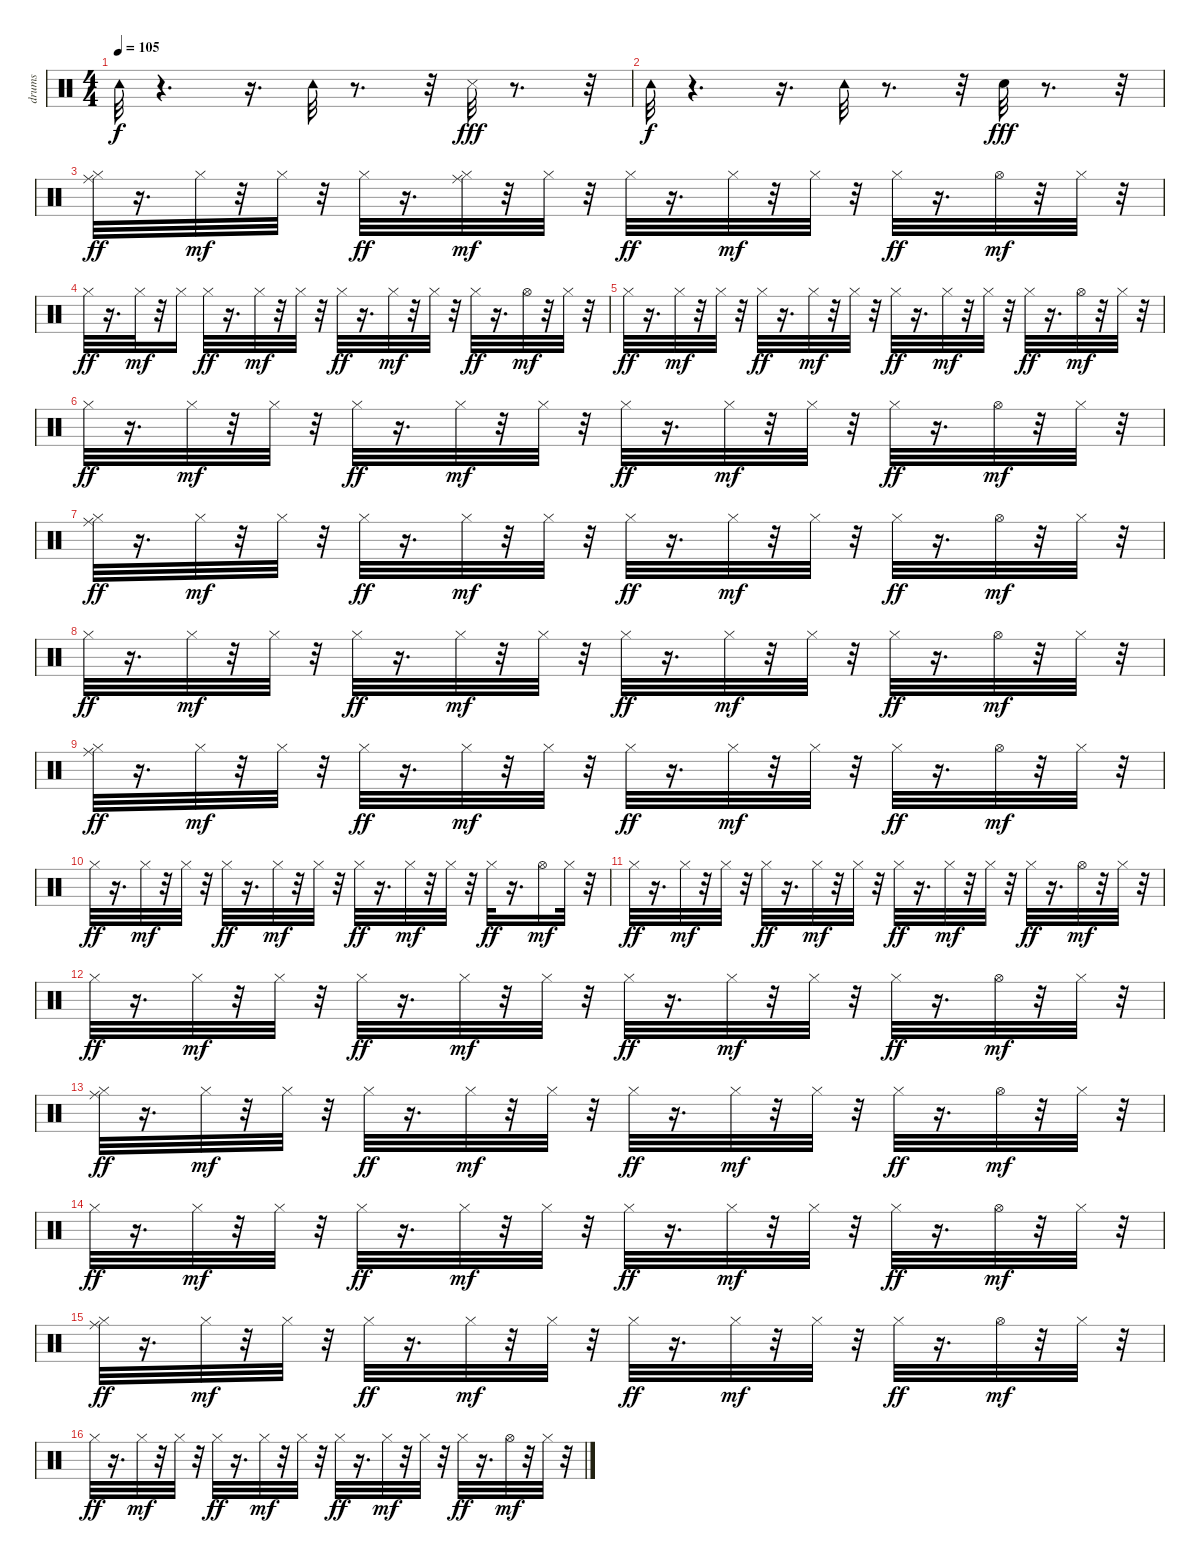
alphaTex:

\track ("drums" "drums") {instrument percussion}
\staff {score}
\articulation defaults
\ts (4 4)
\tempo 105
\clef neutral
\ks c "Tambourine (hit)".32{dy f}
r.4{d} r.16{d} "Tambourine (hit)".32 r.8{d} r.32 "Snare (side stick) 3".32{dy fff} r.8{d} r.32 |
"Tambourine (hit)".32{dy f} r.4{d} r.16{d} "Tambourine (hit)".32 r.8{d} r.32 "Electric Snare (hit)".32{dy fff} r.8{d} r.32 |
("Ride (middle)" "Hi-Hat (closed)").32{dy ff} r.16{d} "Hi-Hat (closed)".32{dy mf} r.32 "Hi-Hat (closed)".32 r.32 "Hi-Hat (closed)".32{dy ff} r.16{d} ("Ride (middle)" "Hi-Hat (closed)").32{dy mf} r.32 "Hi-Hat (closed)".32 r.32 "Hi-Hat (closed)".32{dy ff} r.16{d} "Hi-Hat (closed)".32{dy mf} r.32 "Hi-Hat (closed)".32 r.32 "Hi-Hat (closed)".32{dy ff} r.16{d} "Hi-Hat (open)".32{dy mf} r.32 "Hi-Hat (closed)".32 r.32 |
"Hi-Hat (closed)".32{dy ff} r.16{d} "Hi-Hat (closed)".32{dy mf} r.32 "Hi-Hat (closed)".16 "Hi-Hat (closed)".32{dy ff} r.16{d} "Hi-Hat (closed)".32{dy mf} r.32 "Hi-Hat (closed)".32 r.32 "Hi-Hat (closed)".32{dy ff} r.16{d} "Hi-Hat (closed)".32{dy mf} r.32 "Hi-Hat (closed)".32 r.32 "Hi-Hat (closed)".32{dy ff} r.16{d} "Hi-Hat (open)".32{dy mf} r.32 "Hi-Hat (closed)".32 r.32 |
"Hi-Hat (closed)".32{dy ff} r.16{d} "Hi-Hat (closed)".32{dy mf} r.32 "Hi-Hat (closed)".32 r.32 "Hi-Hat (closed)".32{dy ff} r.16{d} "Hi-Hat (closed)".32{dy mf} r.32 "Hi-Hat (closed)".32 r.32 "Hi-Hat (closed)".32{dy ff} r.16{d} "Hi-Hat (closed)".32{dy mf} r.32 "Hi-Hat (closed)".32 r.32 "Hi-Hat (closed)".32{dy ff} r.16{d} "Hi-Hat (open)".32{dy mf} r.32 "Hi-Hat (closed)".32 r.32 |
"Hi-Hat (closed)".32{dy ff} r.16{d} "Hi-Hat (closed)".32{dy mf} r.32 "Hi-Hat (closed)".32 r.32 "Hi-Hat (closed)".32{dy ff} r.16{d} "Hi-Hat (closed)".32{dy mf} r.32 "Hi-Hat (closed)".32 r.32 "Hi-Hat (closed)".32{dy ff} r.16{d} "Hi-Hat (closed)".32{dy mf} r.32 "Hi-Hat (closed)".32 r.32 "Hi-Hat (closed)".32{dy ff} r.16{d} "Hi-Hat (open)".32{dy mf} r.32 "Hi-Hat (closed)".32 r.32 |
("Ride (middle)" "Hi-Hat (closed)").32{dy ff} r.16{d} "Hi-Hat (closed)".32{dy mf} r.32 "Hi-Hat (closed)".32 r.32 "Hi-Hat (closed)".32{dy ff} r.16{d} "Hi-Hat (closed)".32{dy mf} r.32 "Hi-Hat (closed)".32 r.32 "Hi-Hat (closed)".32{dy ff} r.16{d} "Hi-Hat (closed)".32{dy mf} r.32 "Hi-Hat (closed)".32 r.32 "Hi-Hat (closed)".32{dy ff} r.16{d} "Hi-Hat (open)".32{dy mf} r.32 "Hi-Hat (closed)".32 r.32 |
"Hi-Hat (closed)".32{dy ff} r.16{d} "Hi-Hat (closed)".32{dy mf} r.32 "Hi-Hat (closed)".32 r.32 "Hi-Hat (closed)".32{dy ff} r.16{d} "Hi-Hat (closed)".32{dy mf} r.32 "Hi-Hat (closed)".32 r.32 "Hi-Hat (closed)".32{dy ff} r.16{d} "Hi-Hat (closed)".32{dy mf} r.32 "Hi-Hat (closed)".32 r.32 "Hi-Hat (closed)".32{dy ff} r.16{d} "Hi-Hat (open)".32{dy mf} r.32 "Hi-Hat (closed)".32 r.32 |
("Hi-Hat (closed)" "Ride (middle)").32{dy ff} r.16{d} "Hi-Hat (closed)".32{dy mf} r.32 "Hi-Hat (closed)".32 r.32 "Hi-Hat (closed)".32{dy ff} r.16{d} "Hi-Hat (closed)".32{dy mf} r.32 "Hi-Hat (closed)".32 r.32 "Hi-Hat (closed)".32{dy ff} r.16{d} "Hi-Hat (closed)".32{dy mf} r.32 "Hi-Hat (closed)".32 r.32 "Hi-Hat (closed)".32{dy ff} r.16{d} "Hi-Hat (open)".32{dy mf} r.32 "Hi-Hat (closed)".32 r.32 |
"Hi-Hat (closed)".32{dy ff} r.16{d} "Hi-Hat (closed)".32{dy mf} r.32 "Hi-Hat (closed)".32 r.32 "Hi-Hat (closed)".32{dy ff} r.16{d} "Hi-Hat (closed)".32{dy mf} r.32 "Hi-Hat (closed)".32 r.32 "Hi-Hat (closed)".32{dy ff} r.16{d} "Hi-Hat (closed)".32{dy mf} r.32 "Hi-Hat (closed)".32 r.32 "Hi-Hat (closed)".32{dy ff} r.16{d} "Hi-Hat (open)".16{dy mf} "Hi-Hat (closed)".32 r.32 |
"Hi-Hat (closed)".32{dy ff} r.16{d} "Hi-Hat (closed)".32{dy mf} r.32 "Hi-Hat (closed)".32 r.32 "Hi-Hat (closed)".32{dy ff} r.16{d} "Hi-Hat (closed)".32{dy mf} r.32 "Hi-Hat (closed)".32 r.32 "Hi-Hat (closed)".32{dy ff} r.16{d} "Hi-Hat (closed)".32{dy mf} r.32 "Hi-Hat (closed)".32 r.32 "Hi-Hat (closed)".32{dy ff} r.16{d} "Hi-Hat (open)".32{dy mf} r.32 "Hi-Hat (closed)".32 r.32 |
"Hi-Hat (closed)".32{dy ff} r.16{d} "Hi-Hat (closed)".32{dy mf} r.32 "Hi-Hat (closed)".32 r.32 "Hi-Hat (closed)".32{dy ff} r.16{d} "Hi-Hat (closed)".32{dy mf} r.32 "Hi-Hat (closed)".32 r.32 "Hi-Hat (closed)".32{dy ff} r.16{d} "Hi-Hat (closed)".32{dy mf} r.32 "Hi-Hat (closed)".32 r.32 "Hi-Hat (closed)".32{dy ff} r.16{d} "Hi-Hat (open)".32{dy mf} r.32 "Hi-Hat (closed)".32 r.32 |
("Ride (middle)" "Hi-Hat (closed)").32{dy ff} r.16{d} "Hi-Hat (closed)".32{dy mf} r.32 "Hi-Hat (closed)".32 r.32 "Hi-Hat (closed)".32{dy ff} r.16{d} "Hi-Hat (closed)".32{dy mf} r.32 "Hi-Hat (closed)".32 r.32 "Hi-Hat (closed)".32{dy ff} r.16{d} "Hi-Hat (closed)".32{dy mf} r.32 "Hi-Hat (closed)".32 r.32 "Hi-Hat (closed)".32{dy ff} r.16{d} "Hi-Hat (open)".32{dy mf} r.32 "Hi-Hat (closed)".32 r.32 |
"Hi-Hat (closed)".32{dy ff} r.16{d} "Hi-Hat (closed)".32{dy mf} r.32 "Hi-Hat (closed)".32 r.32 "Hi-Hat (closed)".32{dy ff} r.16{d} "Hi-Hat (closed)".32{dy mf} r.32 "Hi-Hat (closed)".32 r.32 "Hi-Hat (closed)".32{dy ff} r.16{d} "Hi-Hat (closed)".32{dy mf} r.32 "Hi-Hat (closed)".32 r.32 "Hi-Hat (closed)".32{dy ff} r.16{d} "Hi-Hat (open)".32{dy mf} r.32 "Hi-Hat (closed)".32 r.32 |
("Ride (middle)" "Hi-Hat (closed)").32{dy ff} r.16{d} "Hi-Hat (closed)".32{dy mf} r.32 "Hi-Hat (closed)".32 r.32 "Hi-Hat (closed)".32{dy ff} r.16{d} "Hi-Hat (closed)".32{dy mf} r.32 "Hi-Hat (closed)".32 r.32 "Hi-Hat (closed)".32{dy ff} r.16{d} "Hi-Hat (closed)".32{dy mf} r.32 "Hi-Hat (closed)".32 r.32 "Hi-Hat (closed)".32{dy ff} r.16{d} "Hi-Hat (open)".32{dy mf} r.32 "Hi-Hat (closed)".32 r.32 |
"Hi-Hat (closed)".32{dy ff} r.16{d} "Hi-Hat (closed)".32{dy mf} r.32 "Hi-Hat (closed)".32 r.32 "Hi-Hat (closed)".32{dy ff} r.16{d} "Hi-Hat (closed)".32{dy mf} r.32 "Hi-Hat (closed)".32 r.32 "Hi-Hat (closed)".32{dy ff} r.16{d} "Hi-Hat (closed)".32{dy mf} r.32 "Hi-Hat (closed)".32 r.32 "Hi-Hat (closed)".32{dy ff} r.16{d} "Hi-Hat (open)".32{dy mf} r.32 "Hi-Hat (closed)".32 r.32
